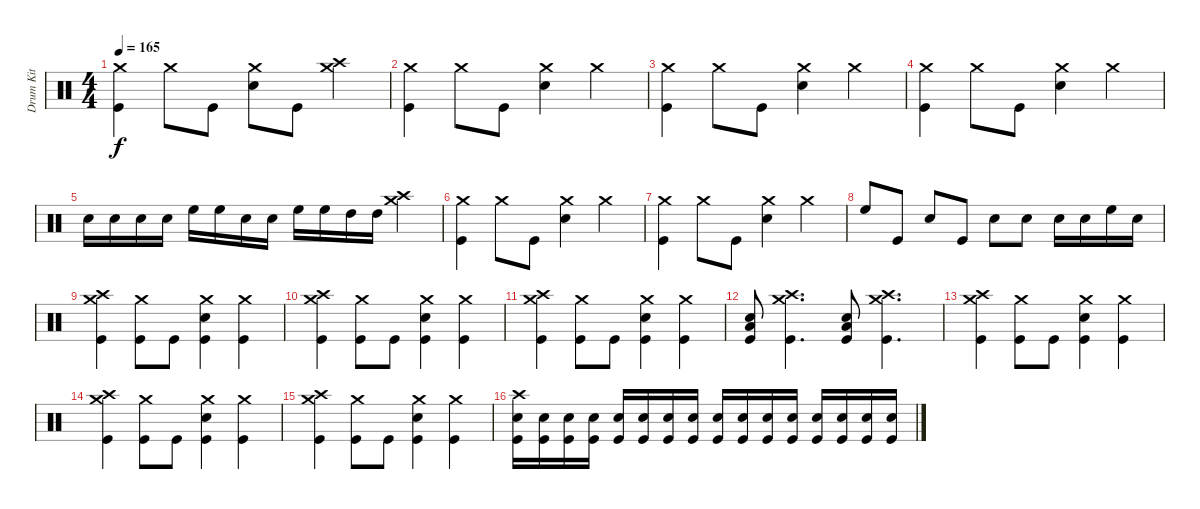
\track ("Drum Kit" "Drum Kit") {instrument percussion}
\staff {score}
\articulation defaults
\ts (4 4)
\tempo 165
\clef neutral
\ks c
("Crash medium (hit)" "Kick (hit)").4{dy f} "Crash medium (hit)".8 "Kick (hit)".8 ("Snare (hit) 2" "Crash medium (hit)").8 "Kick (hit)".8 ("Crash medium (hit)" "Crash high (hit)").4 |
("Crash medium (hit)" "Kick (hit)").4 "Crash medium (hit)".8 "Kick (hit)".8 ("Snare (hit) 2" "Crash medium (hit)").4 "Crash medium (hit)".4 |
("Crash medium (hit)" "Kick (hit)").4 "Crash medium (hit)".8 "Kick (hit)".8 ("Snare (hit) 2" "Crash medium (hit)").4 "Crash medium (hit)".4 |
("Crash medium (hit)" "Kick (hit)").4 "Crash medium (hit)".8 "Kick (hit)".8 ("Snare (hit) 2" "Crash medium (hit)").4 "Crash medium (hit)".4 |
"Snare (hit) 2".16 "Snare (hit) 2".16 "Snare (hit) 2".16 "Snare (hit) 2".16 "High Floor Tom (hit)".16 "High Floor Tom (hit)".16 "Snare (hit) 2".16 "Snare (hit) 2".16 "High Floor Tom (hit)".16 "High Floor Tom (hit)".16 "High Tom (hit)".16 "High Tom (hit)".16 ("Crash high (hit)" "Crash medium (hit)").4 |
("Crash medium (hit)" "Kick (hit)").4 "Crash medium (hit)".8 "Kick (hit)".8 ("Snare (hit) 2" "Crash medium (hit)").4 "Crash medium (hit)".4 |
("Crash medium (hit)" "Kick (hit)").4 "Crash medium (hit)".8 "Kick (hit)".8 ("Snare (hit) 2" "Crash medium (hit)").4 "Crash medium (hit)".4 |
"High Floor Tom (hit)".8 "Kick (hit)".8 "Snare (hit) 2".8 "Kick (hit)".8 "Snare (hit) 2".8 "Snare (hit) 2".8 "Snare (hit) 2".16 "Snare (hit) 2".16 "High Floor Tom (hit)".16 "Snare (hit) 2".16 |
("Crash high (hit)" "Crash medium (hit)" "Kick (hit)").4 ("Crash medium (hit)" "Kick (hit)").8 "Kick (hit)".8 ("Snare (hit) 2" "Crash medium (hit)" "Kick (hit)").4 ("Crash medium (hit)" "Kick (hit)").4 |
("Crash high (hit)" "Crash medium (hit)" "Kick (hit)").4 ("Crash medium (hit)" "Kick (hit)").8 "Kick (hit)".8 ("Snare (hit) 2" "Crash medium (hit)" "Kick (hit)").4 ("Crash medium (hit)" "Kick (hit)").4 |
("Crash high (hit)" "Crash medium (hit)" "Kick (hit)").4 ("Crash medium (hit)" "Kick (hit)").8 "Kick (hit)".8 ("Snare (hit) 2" "Crash medium (hit)" "Kick (hit)").4 ("Crash medium (hit)" "Kick (hit)").4 |
("Snare (hit) 2" "Low Floor Tom (hit)" "Kick (hit)").8 ("Crash high (hit)" "Crash medium (hit)" "Kick (hit)").4{d} ("Snare (hit) 2" "Low Floor Tom (hit)" "Kick (hit)").8 ("Crash high (hit)" "Crash medium (hit)" "Kick (hit)").4{d} |
("Crash high (hit)" "Crash medium (hit)" "Kick (hit)").4 ("Crash medium (hit)" "Kick (hit)").8 "Kick (hit)".8 ("Snare (hit) 2" "Crash medium (hit)" "Kick (hit)").4 ("Crash medium (hit)" "Kick (hit)").4 |
("Crash high (hit)" "Crash medium (hit)" "Kick (hit)").4 ("Crash medium (hit)" "Kick (hit)").8 "Kick (hit)".8 ("Snare (hit) 2" "Crash medium (hit)" "Kick (hit)").4 ("Crash medium (hit)" "Kick (hit)").4 |
("Crash high (hit)" "Crash medium (hit)" "Kick (hit)").4 ("Crash medium (hit)" "Kick (hit)").8 "Kick (hit)".8 ("Snare (hit) 2" "Crash medium (hit)" "Kick (hit)").4 ("Crash medium (hit)" "Kick (hit)").4 |
("Snare (hit) 2" "Crash high (hit)" "Kick (hit)").16 ("Snare (hit) 2" "Kick (hit)").16 ("Snare (hit) 2" "Kick (hit)").16 ("Snare (hit) 2" "Kick (hit)").16 ("Snare (hit) 2" "Kick (hit)").16 ("Snare (hit) 2" "Kick (hit)").16 ("Snare (hit) 2" "Kick (hit)").16 ("Snare (hit) 2" "Kick (hit)").16 ("Snare (hit) 2" "Kick (hit)").16 ("Snare (hit) 2" "Kick (hit)").16 ("Snare (hit) 2" "Kick (hit)").16 ("Snare (hit) 2" "Kick (hit)").16 ("Snare (hit) 2" "Kick (hit)").16 ("Snare (hit) 2" "Kick (hit)").16 ("Snare (hit) 2" "Kick (hit)").16 ("Snare (hit) 2" "Kick (hit)").16
